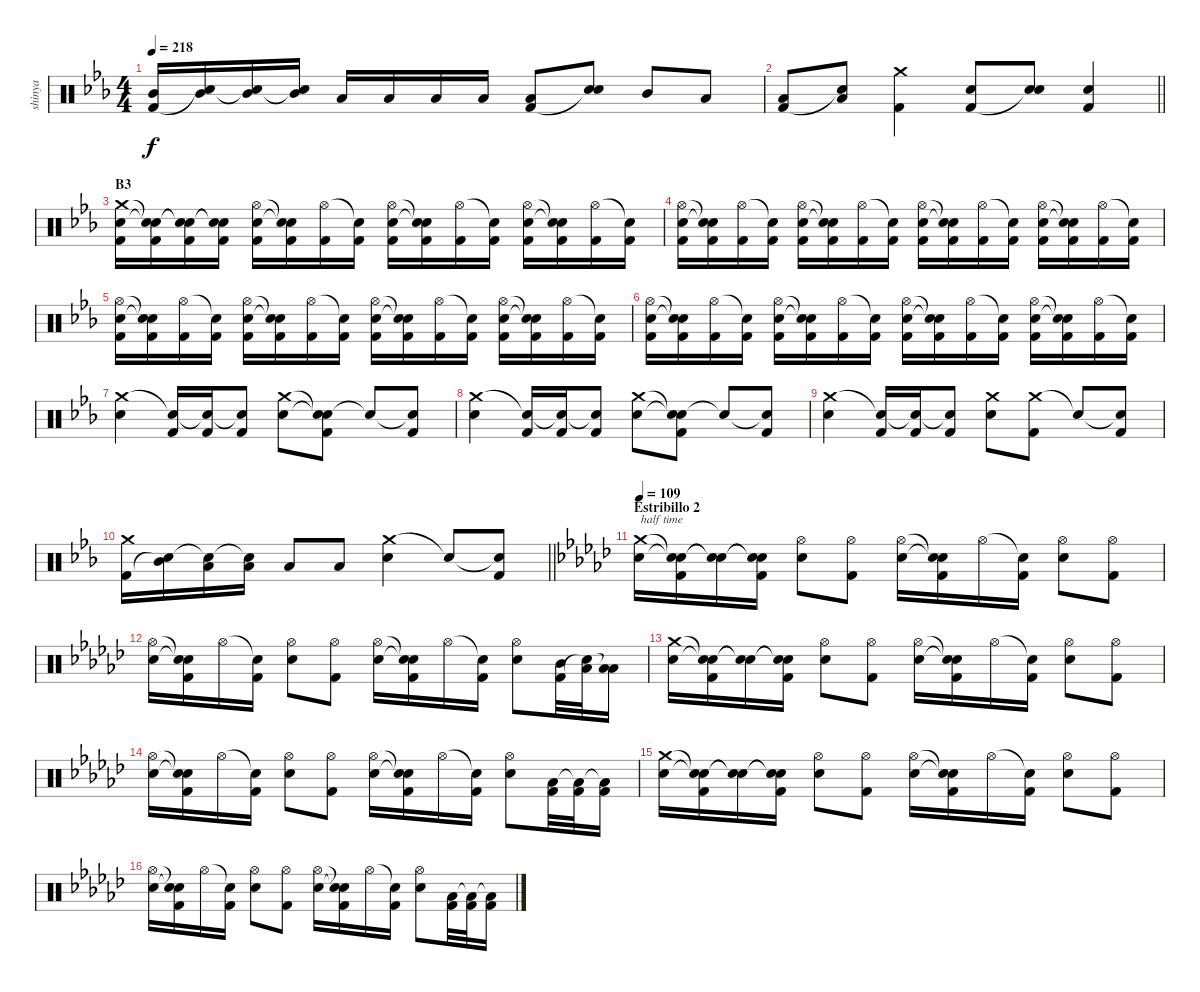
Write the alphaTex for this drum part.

\track ("shinya" "shinya") {instrument percussion}
\staff {score}
\articulation defaults
\ts (4 4)
\tempo 218
\clef neutral
\ks eb
("Mid Tom (hit)" "Kick (hit) 2").16{dy f} ("Mid Tom (hit)" "Snare (hit)"{t}).16 ("Mid Tom (hit)" "Snare (hit)"{t}).16 ("Mid Tom (hit)" "Snare (hit)"{t}).16 "Low Tom (hit)".16 "Low Tom (hit)".16 "Low Tom (hit)".16 "Low Tom (hit)".16 ("Low Floor Tom (hit)" "Kick (hit) 2").8 ("Electric Snare (hit)" "Snare (hit)"{t}).8 "Mid Tom (hit)".8 "Low Tom (hit)".8 |
\barLineRight lightlight
("Low Floor Tom (hit)" "Kick (hit) 2").8 ("Low Floor Tom (hit)" "Snare (hit)"{t}).8 ("Crash medium (hit)" "Kick (hit) 2").4 ("Electric Snare (hit)" "Kick (hit) 2").8 ("Electric Snare (hit)" "Snare (hit)"{t}).8 ("Electric Snare (hit)" "Kick (hit) 2").4 |
\section ("" "B3")
("Crash medium (hit)" "Electric Snare (hit)" "Kick (hit) 2").16 ("Snare (hit)"{t} "Snare (hit)"{t} "Kick (hit) 2").16 ("Snare (hit)"{t} "Snare (hit)"{t} "Kick (hit) 2").16 ("Snare (hit)"{t} "Snare (hit)"{t} "Kick (hit) 2").16 ("Hi-Hat (open)" "Electric Snare (hit)" "Kick (hit) 2").16 ("Snare (hit)"{t} "Snare (hit)"{t} "Kick (hit) 2").16 ("Hi-Hat (open)" "Kick (hit) 2").16 ("Snare (hit)"{t} "Kick (hit) 2").16 ("Hi-Hat (open)" "Electric Snare (hit)" "Kick (hit) 2").16 ("Snare (hit)"{t} "Snare (hit)"{t} "Kick (hit) 2").16 ("Hi-Hat (open)" "Kick (hit) 2").16 ("Snare (hit)"{t} "Kick (hit) 2").16 ("Hi-Hat (open)" "Electric Snare (hit)" "Kick (hit) 2").16 ("Snare (hit)"{t} "Snare (hit)"{t} "Kick (hit) 2").16 ("Hi-Hat (open)" "Kick (hit) 2").16 ("Snare (hit)"{t} "Kick (hit) 2").16 |
("Hi-Hat (open)" "Electric Snare (hit)" "Kick (hit) 2").16 ("Snare (hit)"{t} "Snare (hit)"{t} "Kick (hit) 2").16 ("Hi-Hat (open)" "Kick (hit) 2").16 ("Snare (hit)"{t} "Kick (hit) 2").16 ("Hi-Hat (open)" "Electric Snare (hit)" "Kick (hit) 2").16 ("Snare (hit)"{t} "Snare (hit)"{t} "Kick (hit) 2").16 ("Hi-Hat (open)" "Kick (hit) 2").16 ("Snare (hit)"{t} "Kick (hit) 2").16 ("Hi-Hat (open)" "Electric Snare (hit)" "Kick (hit) 2").16 ("Snare (hit)"{t} "Snare (hit)"{t} "Kick (hit) 2").16 ("Hi-Hat (open)" "Kick (hit) 2").16 ("Snare (hit)"{t} "Kick (hit) 2").16 ("Hi-Hat (open)" "Electric Snare (hit)" "Kick (hit) 2").16 ("Snare (hit)"{t} "Snare (hit)"{t} "Kick (hit) 2").16 ("Hi-Hat (open)" "Kick (hit) 2").16 ("Snare (hit)"{t} "Kick (hit) 2").16 |
("Hi-Hat (open)" "Electric Snare (hit)" "Kick (hit) 2").16 ("Snare (hit)"{t} "Snare (hit)"{t} "Kick (hit) 2").16 ("Hi-Hat (open)" "Kick (hit) 2").16 ("Snare (hit)"{t} "Kick (hit) 2").16 ("Hi-Hat (open)" "Electric Snare (hit)" "Kick (hit) 2").16 ("Snare (hit)"{t} "Snare (hit)"{t} "Kick (hit) 2").16 ("Hi-Hat (open)" "Kick (hit) 2").16 ("Snare (hit)"{t} "Kick (hit) 2").16 ("Hi-Hat (open)" "Electric Snare (hit)" "Kick (hit) 2").16 ("Snare (hit)"{t} "Snare (hit)"{t} "Kick (hit) 2").16 ("Hi-Hat (open)" "Kick (hit) 2").16 ("Snare (hit)"{t} "Kick (hit) 2").16 ("Hi-Hat (open)" "Electric Snare (hit)" "Kick (hit) 2").16 ("Snare (hit)"{t} "Snare (hit)"{t} "Kick (hit) 2").16 ("Hi-Hat (open)" "Kick (hit) 2").16 ("Snare (hit)"{t} "Kick (hit) 2").16 |
("Hi-Hat (open)" "Electric Snare (hit)" "Kick (hit) 2").16 ("Snare (hit)"{t} "Snare (hit)"{t} "Kick (hit) 2").16 ("Hi-Hat (open)" "Kick (hit) 2").16 ("Snare (hit)"{t} "Kick (hit) 2").16 ("Hi-Hat (open)" "Electric Snare (hit)" "Kick (hit) 2").16 ("Snare (hit)"{t} "Snare (hit)"{t} "Kick (hit) 2").16 ("Hi-Hat (open)" "Kick (hit) 2").16 ("Snare (hit)"{t} "Kick (hit) 2").16 ("Hi-Hat (open)" "Electric Snare (hit)" "Kick (hit) 2").16 ("Snare (hit)"{t} "Snare (hit)"{t} "Kick (hit) 2").16 ("Hi-Hat (open)" "Kick (hit) 2").16 ("Snare (hit)"{t} "Kick (hit) 2").16 ("Hi-Hat (open)" "Electric Snare (hit)" "Kick (hit) 2").16 ("Snare (hit)"{t} "Snare (hit)"{t} "Kick (hit) 2").16 ("Hi-Hat (open)" "Kick (hit) 2").16 ("Snare (hit)"{t} "Kick (hit) 2").16 |
("Crash medium (hit)" "Electric Snare (hit)").4 ("Snare (hit)"{t} "Kick (hit) 2").16 ("Snare (hit)"{t} "Kick (hit) 2").16 ("Snare (hit)"{t} "Kick (hit) 2").8 ("Crash medium (hit)" "Electric Snare (hit)").8 ("Snare (hit)"{t} "Snare (hit)"{t} "Kick (hit) 2").8 "Snare (hit)"{t}.8 ("Snare (hit)"{t} "Kick (hit) 2").8 |
("Crash medium (hit)" "Electric Snare (hit)").4 ("Snare (hit)"{t} "Kick (hit) 2").16 ("Snare (hit)"{t} "Kick (hit) 2").16 ("Snare (hit)"{t} "Kick (hit) 2").8 ("Crash medium (hit)" "Electric Snare (hit)").8 ("Snare (hit)"{t} "Snare (hit)"{t} "Kick (hit) 2").8 "Snare (hit)"{t}.8 ("Snare (hit)"{t} "Kick (hit) 2").8 |
("Crash medium (hit)" "Electric Snare (hit)").4 ("Snare (hit)"{t} "Kick (hit) 2").16 ("Snare (hit)"{t} "Kick (hit) 2").16 ("Snare (hit)"{t} "Kick (hit) 2").8 ("Crash medium (hit)" "Electric Snare (hit)").8 ("Crash medium (hit)" "Kick (hit) 2").8 "Snare (hit)"{t}.8 ("Snare (hit)"{t} "Kick (hit) 2").8 |
\barLineRight lightlight
("Crash medium (hit)" "Kick (hit) 2").16 ("Mid Tom (hit)" "Snare (hit)"{t}).16 ("Low Tom (hit)" "Snare (hit)"{t}).16 ("Low Floor Tom (hit)" "Snare (hit)"{t}).16 "Low Tom (hit)".8 "Low Floor Tom (hit)".8 ("Crash medium (hit)" "Electric Snare (hit)").4 "Snare (hit)"{t}.8 ("Snare (hit)"{t} "Kick (hit) 2").8 |
\section ("" "Estribillo 2")
\tempo 109
\ks ebminor
("Crash medium (hit)" "Electric Snare (hit)").16{txt "half time"} ("Snare (hit)"{t} "Snare (hit)"{t} "Kick (hit) 2").16 ("Snare (hit)"{t} "Snare (hit)"{t}).16 ("Snare (hit)"{t} "Snare (hit)"{t} "Kick (hit) 2").16 ("Hi-Hat (open)" "Electric Snare (hit)").8 ("Hi-Hat (open)" "Kick (hit) 2").8 ("Hi-Hat (open)" "Electric Snare (hit)").16 ("Snare (hit)"{t} "Snare (hit)"{t} "Kick (hit) 2").16 "Hi-Hat (open)".16 ("Snare (hit)"{t} "Kick (hit) 2").16 ("Hi-Hat (open)" "Electric Snare (hit)").8 ("Hi-Hat (open)" "Kick (hit) 2").8 |
("Hi-Hat (open)" "Electric Snare (hit)").16 ("Snare (hit)"{t} "Snare (hit)"{t} "Kick (hit) 2").16 "Hi-Hat (open)".16 ("Snare (hit)"{t} "Kick (hit) 2").16 ("Hi-Hat (open)" "Electric Snare (hit)").8 ("Hi-Hat (open)" "Kick (hit) 2").8 ("Hi-Hat (open)" "Electric Snare (hit)").16 ("Snare (hit)"{t} "Snare (hit)"{t} "Kick (hit) 2").16 "Hi-Hat (open)".16 ("Snare (hit)"{t} "Kick (hit) 2").16 ("Hi-Hat (open)" "Electric Snare (hit)").8 ("Mid Tom (hit)" "Kick (hit) 2").32 ("Low Tom (hit)" "Snare (hit)"{t}).32 ("Low Floor Tom (hit)" "Low Floor Tom (hit)"{t}).16 |
("Crash medium (hit)" "Electric Snare (hit)").16 ("Snare (hit)"{t} "Snare (hit)"{t} "Kick (hit) 2").16 ("Snare (hit)"{t} "Snare (hit)"{t}).16 ("Snare (hit)"{t} "Snare (hit)"{t} "Kick (hit) 2").16 ("Hi-Hat (open)" "Electric Snare (hit)").8 ("Hi-Hat (open)" "Kick (hit) 2").8 ("Hi-Hat (open)" "Electric Snare (hit)").16 ("Snare (hit)"{t} "Snare (hit)"{t} "Kick (hit) 2").16 "Hi-Hat (open)".16 ("Snare (hit)"{t} "Kick (hit) 2").16 ("Hi-Hat (open)" "Electric Snare (hit)").8 ("Hi-Hat (open)" "Kick (hit) 2").8 |
("Hi-Hat (open)" "Electric Snare (hit)").16 ("Snare (hit)"{t} "Snare (hit)"{t} "Kick (hit) 2").16 "Hi-Hat (open)".16 ("Snare (hit)"{t} "Kick (hit) 2").16 ("Hi-Hat (open)" "Electric Snare (hit)").8 ("Hi-Hat (open)" "Kick (hit) 2").8 ("Hi-Hat (open)" "Electric Snare (hit)").16 ("Snare (hit)"{t} "Snare (hit)"{t} "Kick (hit) 2").16 "Hi-Hat (open)".16 ("Snare (hit)"{t} "Kick (hit) 2").16 ("Hi-Hat (open)" "Electric Snare (hit)").8 ("Low Floor Tom (hit)" "Kick (hit) 2").32 ("Low Floor Tom (hit)"{t} "Kick (hit) 2").32 ("Low Floor Tom (hit)"{t} "Kick (hit) 2").16 |
("Crash medium (hit)" "Electric Snare (hit)").16 ("Snare (hit)"{t} "Snare (hit)"{t} "Kick (hit) 2").16 ("Snare (hit)"{t} "Snare (hit)"{t}).16 ("Snare (hit)"{t} "Snare (hit)"{t} "Kick (hit) 2").16 ("Hi-Hat (open)" "Electric Snare (hit)").8 ("Hi-Hat (open)" "Kick (hit) 2").8 ("Hi-Hat (open)" "Electric Snare (hit)").16 ("Snare (hit)"{t} "Snare (hit)"{t} "Kick (hit) 2").16 "Hi-Hat (open)".16 ("Snare (hit)"{t} "Kick (hit) 2").16 ("Hi-Hat (open)" "Electric Snare (hit)").8 ("Hi-Hat (open)" "Kick (hit) 2").8 |
("Hi-Hat (open)" "Electric Snare (hit)").16 ("Snare (hit)"{t} "Snare (hit)"{t} "Kick (hit) 2").16 "Hi-Hat (open)".16 ("Snare (hit)"{t} "Kick (hit) 2").16 ("Hi-Hat (open)" "Electric Snare (hit)").8 ("Hi-Hat (open)" "Kick (hit) 2").8 ("Hi-Hat (open)" "Electric Snare (hit)").16 ("Snare (hit)"{t} "Snare (hit)"{t} "Kick (hit) 2").16 "Hi-Hat (open)".16 ("Snare (hit)"{t} "Kick (hit) 2").16 ("Hi-Hat (open)" "Electric Snare (hit)").8 ("Low Floor Tom (hit)" "Kick (hit) 2").32 ("Low Floor Tom (hit)"{t} "Kick (hit) 2").32 ("Low Floor Tom (hit)"{t} "Kick (hit) 2").16
